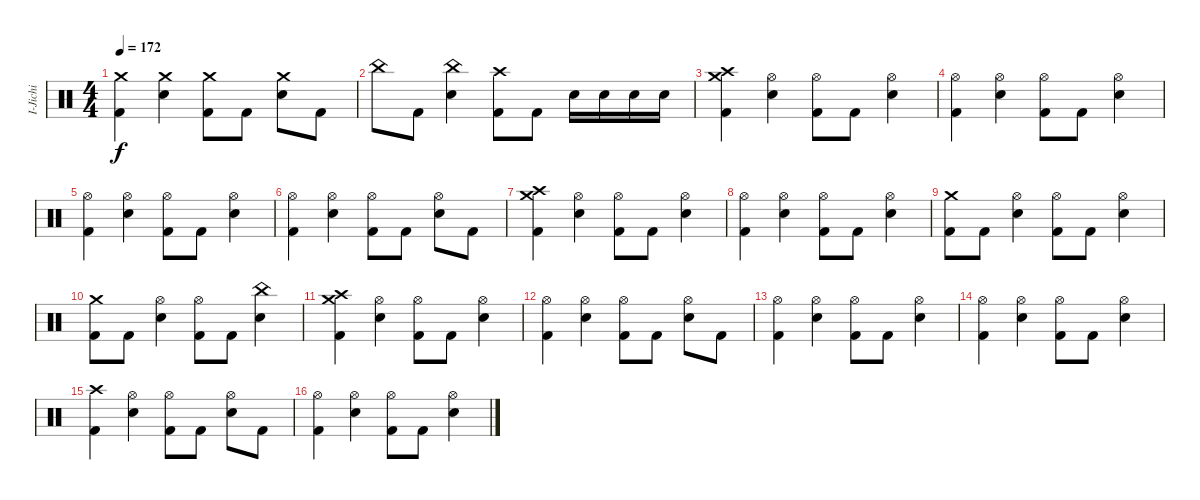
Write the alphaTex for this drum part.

\track ("I-Jichi" "I-Jichi") {instrument percussion}
\staff {score}
\articulation defaults
\ts (4 4)
\tempo 172
\clef neutral
\ks c
("Crash medium (hit)" "Kick (hit) 2").4{dy f} ("Crash medium (hit)" "Electric Snare (hit)").4 ("Crash medium (hit)" "Kick (hit) 2").8 "Kick (hit) 2".8 ("Crash medium (hit)" "Electric Snare (hit)").8 "Kick (hit) 2".8 |
"China (hit)".8 "Kick (hit) 2".8 ("China (hit)" "Electric Snare (hit)").4 ("Crash high (hit)" "Kick (hit) 2").8 "Kick (hit) 2".8 "Electric Snare (hit)".16 "Electric Snare (hit)".16 "Electric Snare (hit)".16 "Electric Snare (hit)".16 |
("Crash high (hit)" "Crash medium (hit)" "Kick (hit) 2").4 ("Hi-Hat (open)" "Electric Snare (hit)").4 ("Hi-Hat (open)" "Kick (hit) 2").8 "Kick (hit) 2".8 ("Hi-Hat (open)" "Electric Snare (hit)").4 |
("Hi-Hat (open)" "Kick (hit) 2").4 ("Hi-Hat (open)" "Electric Snare (hit)").4 ("Hi-Hat (open)" "Kick (hit) 2").8 "Kick (hit) 2".8 ("Hi-Hat (open)" "Electric Snare (hit)").4 |
("Hi-Hat (open)" "Kick (hit) 2").4 ("Hi-Hat (open)" "Electric Snare (hit)").4 ("Hi-Hat (open)" "Kick (hit) 2").8 "Kick (hit) 2".8 ("Hi-Hat (open)" "Electric Snare (hit)").4 |
("Hi-Hat (open)" "Kick (hit) 2").4 ("Hi-Hat (open)" "Electric Snare (hit)").4 ("Hi-Hat (open)" "Kick (hit) 2").8 "Kick (hit) 2".8 ("Hi-Hat (open)" "Electric Snare (hit)").8 "Kick (hit) 2".8 |
("Crash high (hit)" "Crash medium (hit)" "Kick (hit) 2").4 ("Hi-Hat (open)" "Electric Snare (hit)").4 ("Hi-Hat (open)" "Kick (hit) 2").8 "Kick (hit) 2".8 ("Hi-Hat (open)" "Electric Snare (hit)").4 |
("Hi-Hat (open)" "Kick (hit) 2").4 ("Hi-Hat (open)" "Electric Snare (hit)").4 ("Hi-Hat (open)" "Kick (hit) 2").8 "Kick (hit) 2".8 ("Hi-Hat (open)" "Electric Snare (hit)").4 |
("Crash medium (hit)" "Kick (hit) 2").8 "Kick (hit) 2".8 ("Hi-Hat (open)" "Electric Snare (hit)").4 ("Hi-Hat (open)" "Kick (hit) 2").8 "Kick (hit) 2".8 ("Hi-Hat (open)" "Electric Snare (hit)").4 |
("Crash medium (hit)" "Kick (hit) 2").8 "Kick (hit) 2".8 ("Hi-Hat (open)" "Electric Snare (hit)").4 ("Hi-Hat (open)" "Kick (hit) 2").8 "Kick (hit) 2".8 ("China (hit)" "Electric Snare (hit)").4 |
("Crash high (hit)" "Crash medium (hit)" "Kick (hit) 2").4 ("Hi-Hat (open)" "Electric Snare (hit)").4 ("Hi-Hat (open)" "Kick (hit) 2").8 "Kick (hit) 2".8 ("Hi-Hat (open)" "Electric Snare (hit)").4 |
("Hi-Hat (open)" "Kick (hit) 2").4 ("Hi-Hat (open)" "Electric Snare (hit)").4 ("Hi-Hat (open)" "Kick (hit) 2").8 "Kick (hit) 2".8 ("Hi-Hat (open)" "Electric Snare (hit)").8 "Kick (hit) 2".8 |
("Hi-Hat (open)" "Kick (hit) 2").4 ("Hi-Hat (open)" "Electric Snare (hit)").4 ("Hi-Hat (open)" "Kick (hit) 2").8 "Kick (hit) 2".8 ("Hi-Hat (open)" "Electric Snare (hit)").4 |
("Hi-Hat (open)" "Kick (hit) 2").4 ("Hi-Hat (open)" "Electric Snare (hit)").4 ("Hi-Hat (open)" "Kick (hit) 2").8 "Kick (hit) 2".8 ("Hi-Hat (open)" "Electric Snare (hit)").4 |
("Crash high (hit)" "Kick (hit) 2").4 ("Hi-Hat (open)" "Electric Snare (hit)").4 ("Hi-Hat (open)" "Kick (hit) 2").8 "Kick (hit) 2".8 ("Hi-Hat (open)" "Electric Snare (hit)").8 "Kick (hit) 2".8 |
("Hi-Hat (open)" "Kick (hit) 2").4 ("Hi-Hat (open)" "Electric Snare (hit)").4 ("Hi-Hat (open)" "Kick (hit) 2").8 "Kick (hit) 2".8 ("Hi-Hat (open)" "Electric Snare (hit)").4
